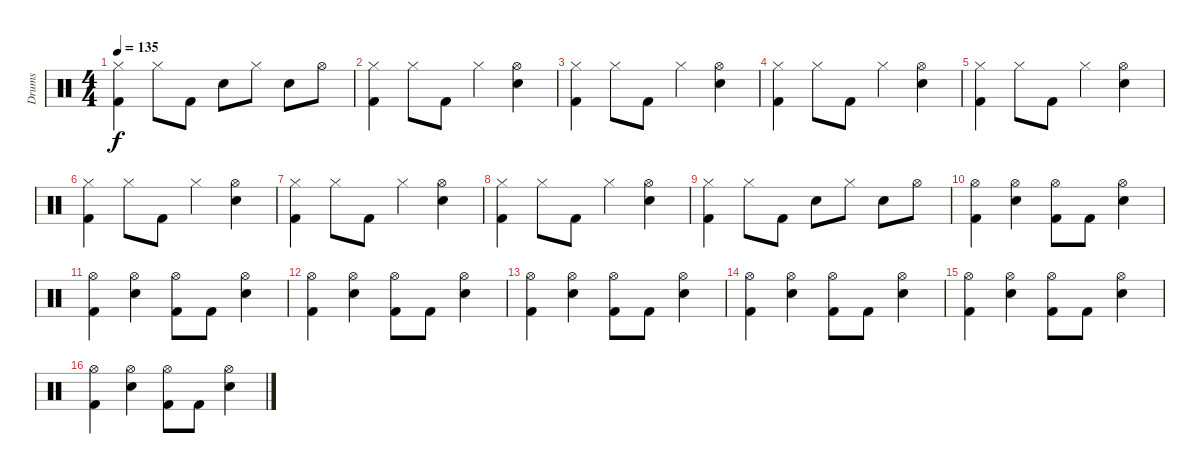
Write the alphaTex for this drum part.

\track ("Drums" "Drums") {instrument percussion}
\staff {score}
\articulation defaults
\ts (4 4)
\tempo 135
\clef neutral
\ks c
("Hi-Hat (closed)" "Kick (hit) 2").4{dy f} "Hi-Hat (closed)".8 "Kick (hit) 2".8 "Electric Snare (hit)".8 "Hi-Hat (closed)".8 "Electric Snare (hit)".8 "Hi-Hat (open)".8 |
("Hi-Hat (closed)" "Kick (hit) 2").4 "Hi-Hat (closed)".8 "Kick (hit) 2".8 "Hi-Hat (closed)".4 ("Hi-Hat (open)" "Electric Snare (hit)").4 |
("Hi-Hat (closed)" "Kick (hit) 2").4 "Hi-Hat (closed)".8 "Kick (hit) 2".8 "Hi-Hat (closed)".4 ("Hi-Hat (open)" "Electric Snare (hit)").4 |
("Hi-Hat (closed)" "Kick (hit) 2").4 "Hi-Hat (closed)".8 "Kick (hit) 2".8 "Hi-Hat (closed)".4 ("Hi-Hat (open)" "Electric Snare (hit)").4 |
("Hi-Hat (closed)" "Kick (hit) 2").4 "Hi-Hat (closed)".8 "Kick (hit) 2".8 "Hi-Hat (closed)".4 ("Hi-Hat (open)" "Electric Snare (hit)").4 |
("Hi-Hat (closed)" "Kick (hit) 2").4 "Hi-Hat (closed)".8 "Kick (hit) 2".8 "Hi-Hat (closed)".4 ("Hi-Hat (open)" "Electric Snare (hit)").4 |
("Hi-Hat (closed)" "Kick (hit) 2").4 "Hi-Hat (closed)".8 "Kick (hit) 2".8 "Hi-Hat (closed)".4 ("Hi-Hat (open)" "Electric Snare (hit)").4 |
("Hi-Hat (closed)" "Kick (hit) 2").4 "Hi-Hat (closed)".8 "Kick (hit) 2".8 "Hi-Hat (closed)".4 ("Hi-Hat (open)" "Electric Snare (hit)").4 |
("Hi-Hat (closed)" "Kick (hit) 2").4 "Hi-Hat (closed)".8 "Kick (hit) 2".8 "Electric Snare (hit)".8 "Hi-Hat (closed)".8 "Electric Snare (hit)".8 "Hi-Hat (open)".8 |
("Hi-Hat (open)" "Kick (hit) 2").4 ("Hi-Hat (open)" "Electric Snare (hit)").4 ("Hi-Hat (open)" "Kick (hit) 2").8 "Kick (hit) 2".8 ("Hi-Hat (open)" "Electric Snare (hit)").4 |
("Hi-Hat (open)" "Kick (hit) 2").4 ("Hi-Hat (open)" "Electric Snare (hit)").4 ("Hi-Hat (open)" "Kick (hit) 2").8 "Kick (hit) 2".8 ("Hi-Hat (open)" "Electric Snare (hit)").4 |
("Hi-Hat (open)" "Kick (hit) 2").4 ("Hi-Hat (open)" "Electric Snare (hit)").4 ("Hi-Hat (open)" "Kick (hit) 2").8 "Kick (hit) 2".8 ("Hi-Hat (open)" "Electric Snare (hit)").4 |
("Hi-Hat (open)" "Kick (hit) 2").4 ("Hi-Hat (open)" "Electric Snare (hit)").4 ("Hi-Hat (open)" "Kick (hit) 2").8 "Kick (hit) 2".8 ("Hi-Hat (open)" "Electric Snare (hit)").4 |
("Hi-Hat (open)" "Kick (hit) 2").4 ("Hi-Hat (open)" "Electric Snare (hit)").4 ("Hi-Hat (open)" "Kick (hit) 2").8 "Kick (hit) 2".8 ("Hi-Hat (open)" "Electric Snare (hit)").4 |
("Hi-Hat (open)" "Kick (hit) 2").4 ("Hi-Hat (open)" "Electric Snare (hit)").4 ("Hi-Hat (open)" "Kick (hit) 2").8 "Kick (hit) 2".8 ("Hi-Hat (open)" "Electric Snare (hit)").4 |
("Hi-Hat (open)" "Kick (hit) 2").4 ("Hi-Hat (open)" "Electric Snare (hit)").4 ("Hi-Hat (open)" "Kick (hit) 2").8 "Kick (hit) 2".8 ("Hi-Hat (open)" "Electric Snare (hit)").4
